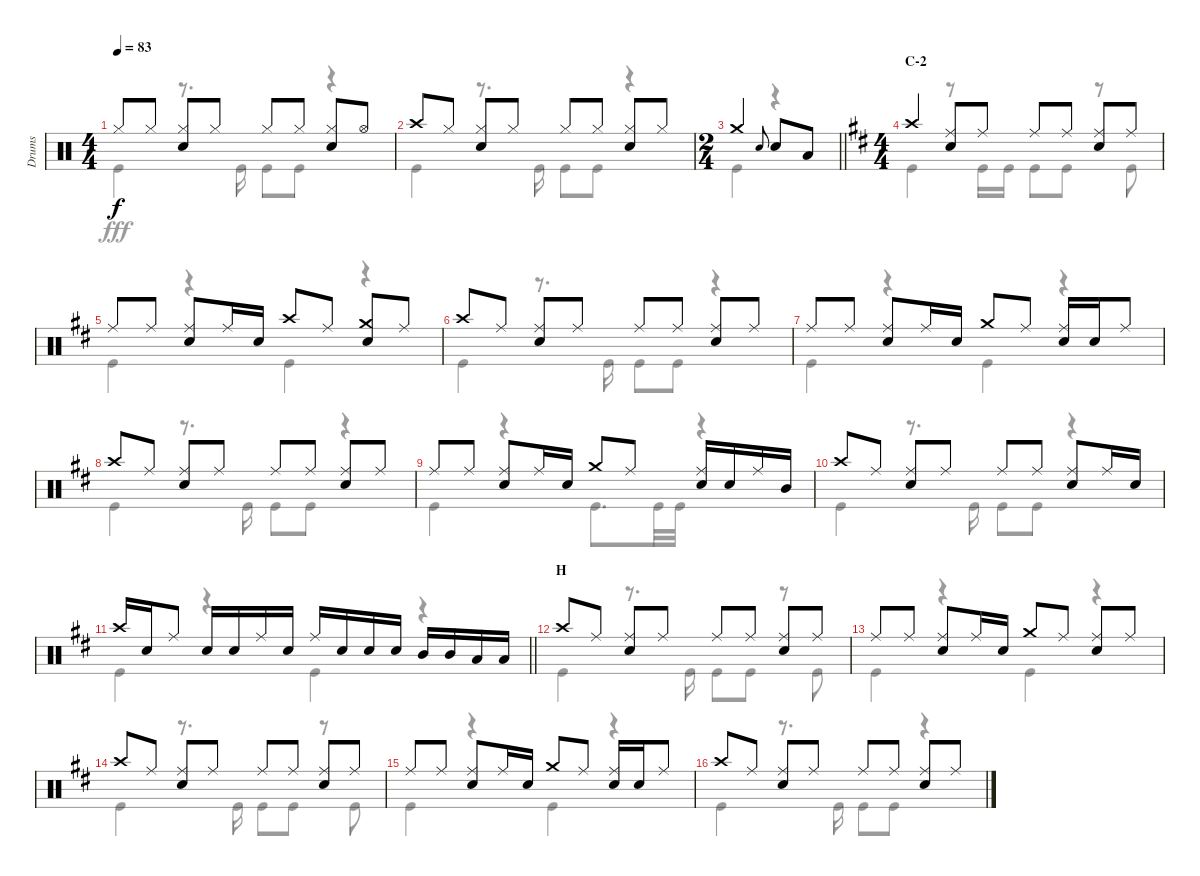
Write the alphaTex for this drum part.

\track ("Drums" "Drums") {instrument percussion}
\staff {score}
\articulation defaults
\voice
\ts (4 4)
\tempo 83
\clef neutral
\ks c "Hi-Hat (closed)".8{dy f} "Hi-Hat (closed)".8
("Hi-Hat (closed)" "Snare (hit) 2").8 "Hi-Hat (closed)".8 "Hi-Hat (closed)".8 "Hi-Hat (closed)".8 ("Hi-Hat (closed)" "Snare (hit) 2").8 "Hi-Hat (open)".8 |
"Crash high (hit)".8 "Hi-Hat (closed)".8 ("Hi-Hat (closed)" "Snare (hit) 2").8 "Hi-Hat (closed)".8 "Hi-Hat (closed)".8 "Hi-Hat (closed)".8 ("Hi-Hat (closed)" "Snare (hit) 2").8 "Hi-Hat (closed)".8 |
\ts (2 4)
\barLineRight lightlight "Crash medium (hit)".4 "Snare (hit) 2".8{gr onbeat} "Snare (hit) 2".8 "Low Tom (hit)".8
|
\ts (4 4)
\section ("" "C-2")
\ks d "Crash high (hit)".4
("Ride (middle)" "Snare (hit) 2").8 "Ride (middle)".8 "Ride (middle)".8 "Ride (middle)".8 ("Ride (middle)" "Snare (hit) 2").8 "Ride (middle)".8 |
"Ride (middle)".8 "Ride (middle)".8 ("Ride (middle)" "Snare (hit) 2").8 "Ride (middle)".16 "Snare (hit) 2".16 "Crash high (hit)".8 "Ride (middle)".8 ("Crash medium (hit)" "Snare (hit) 2").8 "Ride (middle)".8 |
"Crash high (hit)".8 "Ride (middle)".8 ("Ride (middle)" "Snare (hit) 2").8 "Ride (middle)".8 "Ride (middle)".8 "Ride (middle)".8 ("Ride (middle)" "Snare (hit) 2").8 "Ride (middle)".8 |
"Ride (middle)".8 "Ride (middle)".8 ("Ride (middle)" "Snare (hit) 2").8 "Ride (middle)".16 "Snare (hit) 2".16 "Crash medium (hit)".8 "Ride (middle)".8 ("Ride (middle)" "Snare (hit) 2").16 "Snare (hit) 2".16 "Ride (middle)".8 |
"Crash high (hit)".8 "Ride (middle)".8 ("Ride (middle)" "Snare (hit) 2").8 "Ride (middle)".8 "Ride (middle)".8 "Ride (middle)".8 ("Ride (middle)" "Snare (hit) 2").8 "Ride (middle)".8 |
"Ride (middle)".8 "Ride (middle)".8 ("Ride (middle)" "Snare (hit) 2").8 "Ride (middle)".16 "Snare (hit) 2".16 "Crash medium (hit)".8 "Ride (middle)".8 ("Ride (middle)" "Snare (hit) 2").16 "Snare (hit) 2".16 "Ride (middle)".16 "Mid Tom (hit)".16 |
"Crash high (hit)".8 "Ride (middle)".8 ("Ride (middle)" "Snare (hit) 2").8 "Ride (middle)".8 "Ride (middle)".8 "Ride (middle)".8 ("Ride (middle)" "Snare (hit) 2").8 "Ride (middle)".16 "Snare (hit) 2".16 |
\barLineRight lightlight "Crash high (hit)".16 "Snare (hit) 2".16 "Ride (middle)".8 "Snare (hit) 2".16 "Snare (hit) 2".16 "Ride (middle)".16 "Snare (hit) 2".16 "Ride (middle)".16 "Snare (hit) 2".16 "Snare (hit) 2".16 "Snare (hit) 2".16 "Mid Tom (hit)".16 "Mid Tom (hit)".16 "Low Tom (hit)".16 "Low Tom (hit)".16
|
\section ("" "H")
"Crash high (hit)".8 "Ride (middle)".8 ("Ride (middle)" "Snare (hit) 2").8 "Ride (middle)".8 "Ride (middle)".8 "Ride (middle)".8 ("Ride (middle)" "Snare (hit) 2").8 "Ride (middle)".8 |
"Ride (middle)".8 "Ride (middle)".8 ("Ride (middle)" "Snare (hit) 2").8 "Ride (middle)".16 "Snare (hit) 2".16 "Crash medium (hit)".8 "Ride (middle)".8 ("Ride (middle)" "Snare (hit) 2").8 "Ride (middle)".8 |
"Crash high (hit)".8 "Ride (middle)".8 ("Ride (middle)" "Snare (hit) 2").8 "Ride (middle)".8 "Ride (middle)".8 "Ride (middle)".8 ("Ride (middle)" "Snare (hit) 2").8 "Ride (middle)".8 |
"Ride (middle)".8 "Ride (middle)".8 ("Ride (middle)" "Snare (hit) 2").8 "Ride (middle)".16 "Snare (hit) 2".16 "Crash medium (hit)".8 "Ride (middle)".8 ("Ride (middle)" "Snare (hit) 2").16 "Snare (hit) 2".16 "Ride (middle)".8 |
"Crash high (hit)".8 "Ride (middle)".8 ("Ride (middle)" "Snare (hit) 2").8 "Ride (middle)".8 "Ride (middle)".8 "Ride (middle)".8 ("Ride (middle)" "Snare (hit) 2").8 "Ride (middle)".8
\voice
\clef neutral
\ottava regular
\simile none
\ks c "Kick (hit)".4{dy fff}
r.8{d} "Kick (hit)".16 "Kick (hit)".8 "Kick (hit)".8 r.4 |
"Kick (hit)".4 r.8{d} "Kick (hit)".16 "Kick (hit)".8 "Kick (hit)".8 r.4 |
\barLineRight lightlight "Kick (hit)".4
r.4 |
\ks d "Kick (hit)".4
r.8 "Kick (hit)".16 "Kick (hit)".16 "Kick (hit)".8 "Kick (hit)".8 r.8 "Kick (hit)".8 |
"Kick (hit)".4 r.4 "Kick (hit)".4 r.4 |
"Kick (hit)".4 r.8{d} "Kick (hit)".16 "Kick (hit)".8 "Kick (hit)".8 r.4 |
"Kick (hit)".4 r.4 "Kick (hit)".4 r.4 |
"Kick (hit)".4 r.8{d} "Kick (hit)".16 "Kick (hit)".8 "Kick (hit)".8 r.4 |
"Kick (hit)".4 r.4 "Kick (hit)".8{d} "Kick (hit)".32 "Kick (hit)".32 r.4 |
"Kick (hit)".4 r.8{d} "Kick (hit)".16 "Kick (hit)".8 "Kick (hit)".8 r.4 |
\barLineRight lightlight "Kick (hit)".4
r.4 "Kick (hit)".4 r.4 |
"Kick (hit)".4 r.8{d} "Kick (hit)".16 "Kick (hit)".8 "Kick (hit)".8 r.8 "Kick (hit)".8 |
"Kick (hit)".4 r.4 "Kick (hit)".4 r.4 |
"Kick (hit)".4 r.8{d} "Kick (hit)".16 "Kick (hit)".8 "Kick (hit)".8 r.8 "Kick (hit)".8 |
"Kick (hit)".4 r.4 "Kick (hit)".4 r.4 |
"Kick (hit)".4 r.8{d} "Kick (hit)".16 "Kick (hit)".8 "Kick (hit)".8 r.4
